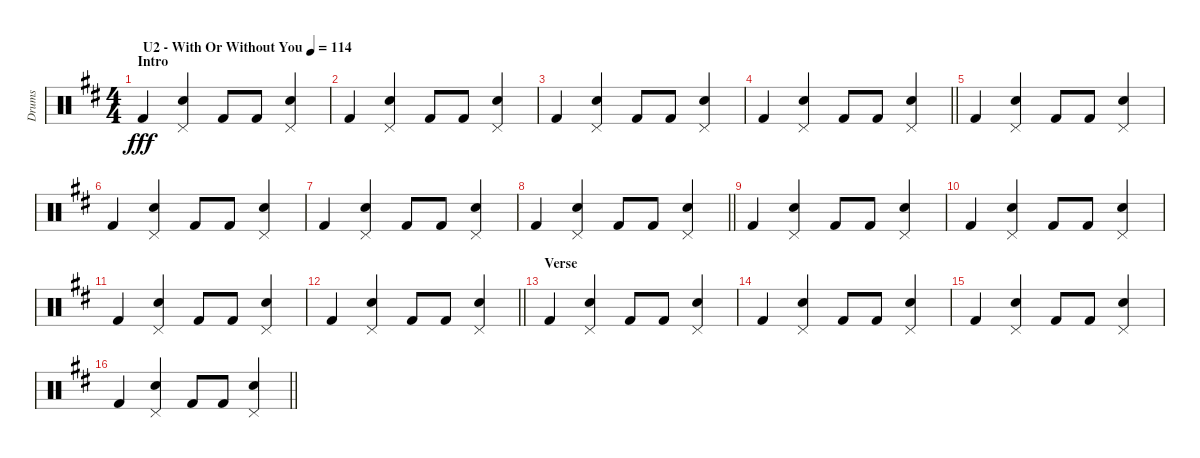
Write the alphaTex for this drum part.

\track ("Drums" "Drums") {instrument percussion}
\staff {score}
\articulation defaults
\ts (4 4)
\section ("" "Intro")
\tempo (114 "U2 - With Or Without You")
\clef neutral
\ks d "Kick (hit) 2".4{dy fff}
("Snare (hit) 2" "Pedal Hi-Hat (hit)").4 "Kick (hit) 2".8 "Kick (hit) 2".8 ("Snare (hit) 2" "Pedal Hi-Hat (hit)").4 |
"Kick (hit) 2".4 ("Snare (hit) 2" "Pedal Hi-Hat (hit)").4 "Kick (hit) 2".8 "Kick (hit) 2".8 ("Snare (hit) 2" "Pedal Hi-Hat (hit)").4 |
"Kick (hit) 2".4 ("Snare (hit) 2" "Pedal Hi-Hat (hit)").4 "Kick (hit) 2".8 "Kick (hit) 2".8 ("Snare (hit) 2" "Pedal Hi-Hat (hit)").4 |
\barLineRight lightlight "Kick (hit) 2".4
("Snare (hit) 2" "Pedal Hi-Hat (hit)").4 "Kick (hit) 2".8 "Kick (hit) 2".8 ("Snare (hit) 2" "Pedal Hi-Hat (hit)").4 |
"Kick (hit) 2".4 ("Snare (hit) 2" "Pedal Hi-Hat (hit)").4 "Kick (hit) 2".8 "Kick (hit) 2".8 ("Snare (hit) 2" "Pedal Hi-Hat (hit)").4 |
"Kick (hit) 2".4 ("Snare (hit) 2" "Pedal Hi-Hat (hit)").4 "Kick (hit) 2".8 "Kick (hit) 2".8 ("Snare (hit) 2" "Pedal Hi-Hat (hit)").4 |
"Kick (hit) 2".4 ("Snare (hit) 2" "Pedal Hi-Hat (hit)").4 "Kick (hit) 2".8 "Kick (hit) 2".8 ("Snare (hit) 2" "Pedal Hi-Hat (hit)").4 |
\barLineRight lightlight "Kick (hit) 2".4
("Snare (hit) 2" "Pedal Hi-Hat (hit)").4 "Kick (hit) 2".8 "Kick (hit) 2".8 ("Snare (hit) 2" "Pedal Hi-Hat (hit)").4 |
"Kick (hit) 2".4 ("Snare (hit) 2" "Pedal Hi-Hat (hit)").4 "Kick (hit) 2".8 "Kick (hit) 2".8 ("Snare (hit) 2" "Pedal Hi-Hat (hit)").4 |
"Kick (hit) 2".4 ("Snare (hit) 2" "Pedal Hi-Hat (hit)").4 "Kick (hit) 2".8 "Kick (hit) 2".8 ("Snare (hit) 2" "Pedal Hi-Hat (hit)").4 |
"Kick (hit) 2".4 ("Snare (hit) 2" "Pedal Hi-Hat (hit)").4 "Kick (hit) 2".8 "Kick (hit) 2".8 ("Snare (hit) 2" "Pedal Hi-Hat (hit)").4 |
\barLineRight lightlight "Kick (hit) 2".4
("Snare (hit) 2" "Pedal Hi-Hat (hit)").4 "Kick (hit) 2".8 "Kick (hit) 2".8 ("Snare (hit) 2" "Pedal Hi-Hat (hit)").4 |
\section ("" "Verse")
"Kick (hit) 2".4 ("Snare (hit) 2" "Pedal Hi-Hat (hit)").4 "Kick (hit) 2".8 "Kick (hit) 2".8 ("Snare (hit) 2" "Pedal Hi-Hat (hit)").4 |
"Kick (hit) 2".4 ("Snare (hit) 2" "Pedal Hi-Hat (hit)").4 "Kick (hit) 2".8 "Kick (hit) 2".8 ("Snare (hit) 2" "Pedal Hi-Hat (hit)").4 |
"Kick (hit) 2".4 ("Snare (hit) 2" "Pedal Hi-Hat (hit)").4 "Kick (hit) 2".8 "Kick (hit) 2".8 ("Snare (hit) 2" "Pedal Hi-Hat (hit)").4 |
\barLineRight lightlight "Kick (hit) 2".4
("Snare (hit) 2" "Pedal Hi-Hat (hit)").4 "Kick (hit) 2".8 "Kick (hit) 2".8 ("Snare (hit) 2" "Pedal Hi-Hat (hit)").4
